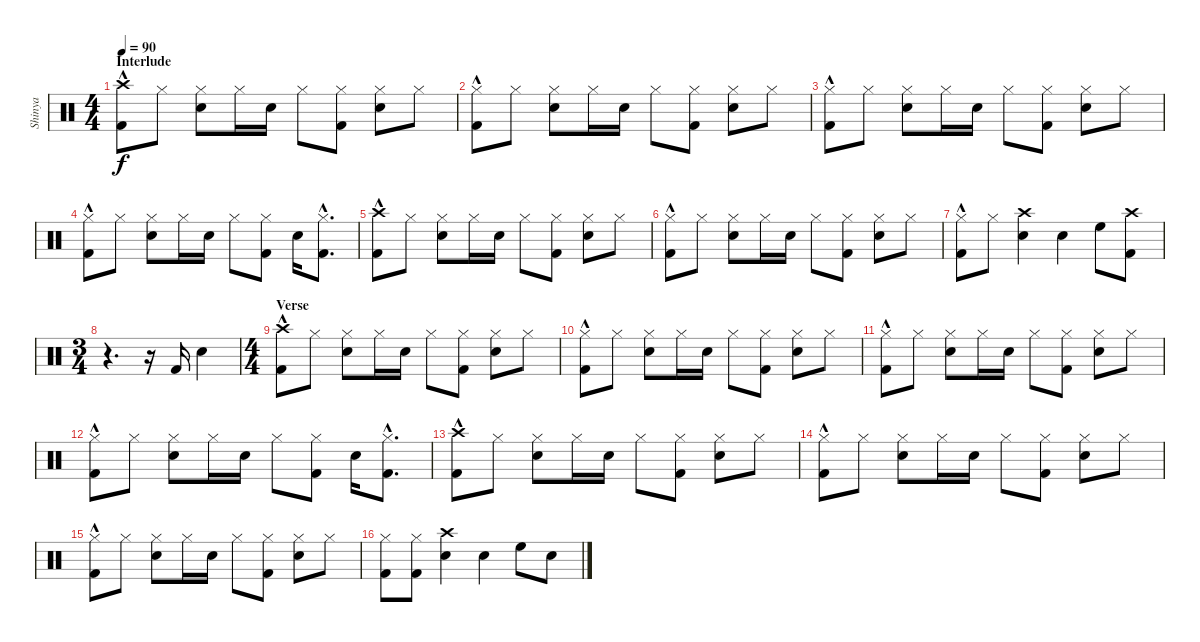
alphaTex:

\track ("Shinya" "Shinya") {instrument percussion}
\staff {score}
\articulation defaults
\ts (4 4)
\section ("" "Interlude")
\tempo 90
\clef neutral
\ks c
("Kick (hit) 2"{hac} "Crash high (hit)").8{dy f} "Hi-Hat (closed)".8 ("Snare (hit) 2" "Hi-Hat (closed)").8 "Hi-Hat (closed)".16 "Snare (hit) 2".16 "Hi-Hat (closed)".8 ("Kick (hit) 2" "Hi-Hat (closed)").8 ("Snare (hit) 2" "Hi-Hat (closed)").8 "Hi-Hat (closed)".8 |
("Kick (hit) 2"{hac} "Hi-Hat (closed)").8 "Hi-Hat (closed)".8 ("Snare (hit) 2" "Hi-Hat (closed)").8 "Hi-Hat (closed)".16 "Snare (hit) 2".16 "Hi-Hat (closed)".8 ("Kick (hit) 2" "Hi-Hat (closed)").8 ("Snare (hit) 2" "Hi-Hat (closed)").8 "Hi-Hat (closed)".8 |
("Kick (hit) 2"{hac} "Hi-Hat (closed)").8 "Hi-Hat (closed)".8 ("Snare (hit) 2" "Hi-Hat (closed)").8 "Hi-Hat (closed)".16 "Snare (hit) 2".16 "Hi-Hat (closed)".8 ("Kick (hit) 2" "Hi-Hat (closed)").8 ("Snare (hit) 2" "Hi-Hat (closed)").8 "Hi-Hat (closed)".8 |
("Kick (hit) 2"{hac} "Hi-Hat (closed)").8 "Hi-Hat (closed)".8 ("Snare (hit) 2" "Hi-Hat (closed)").8 "Hi-Hat (closed)".16 "Snare (hit) 2".16 "Hi-Hat (closed)".8 ("Kick (hit) 2" "Hi-Hat (closed)").8 "Snare (hit) 2".16 ("Kick (hit) 2"{hac} "Hi-Hat (closed)"{hac}).8{d} |
("Kick (hit) 2"{hac} "Crash high (hit)").8 "Hi-Hat (closed)".8 ("Snare (hit) 2" "Hi-Hat (closed)").8 "Hi-Hat (closed)".16 "Snare (hit) 2".16 "Hi-Hat (closed)".8 ("Kick (hit) 2" "Hi-Hat (closed)").8 ("Snare (hit) 2" "Hi-Hat (closed)").8 "Hi-Hat (closed)".8 |
("Kick (hit) 2"{hac} "Hi-Hat (closed)").8 "Hi-Hat (closed)".8 ("Snare (hit) 2" "Hi-Hat (closed)").8 "Hi-Hat (closed)".16 "Snare (hit) 2".16 "Hi-Hat (closed)".8 ("Kick (hit) 2" "Hi-Hat (closed)").8 ("Snare (hit) 2" "Hi-Hat (closed)").8 "Hi-Hat (closed)".8 |
("Kick (hit) 2"{hac} "Hi-Hat (closed)").8 "Hi-Hat (closed)".8 ("Snare (hit) 2" "Crash high (hit)").4 "Snare (hit) 2".4 "High Floor Tom (hit)".8 ("Kick (hit) 2" "Crash high (hit)").8 |
\ts (3 4)
r.4{d} r.16 "Kick (hit) 2".16 "Snare (hit) 2".4 |
\ts (4 4)
\section ("" "Verse")
("Kick (hit) 2"{hac} "Crash high (hit)").8 "Hi-Hat (closed)".8 ("Snare (hit) 2" "Hi-Hat (closed)").8 "Hi-Hat (closed)".16 "Snare (hit) 2".16 "Hi-Hat (closed)".8 ("Kick (hit) 2" "Hi-Hat (closed)").8 ("Snare (hit) 2" "Hi-Hat (closed)").8 "Hi-Hat (closed)".8 |
("Kick (hit) 2"{hac} "Hi-Hat (closed)").8 "Hi-Hat (closed)".8 ("Snare (hit) 2" "Hi-Hat (closed)").8 "Hi-Hat (closed)".16 "Snare (hit) 2".16 "Hi-Hat (closed)".8 ("Kick (hit) 2" "Hi-Hat (closed)").8 ("Snare (hit) 2" "Hi-Hat (closed)").8 "Hi-Hat (closed)".8 |
("Kick (hit) 2"{hac} "Hi-Hat (closed)").8 "Hi-Hat (closed)".8 ("Snare (hit) 2" "Hi-Hat (closed)").8 "Hi-Hat (closed)".16 "Snare (hit) 2".16 "Hi-Hat (closed)".8 ("Kick (hit) 2" "Hi-Hat (closed)").8 ("Snare (hit) 2" "Hi-Hat (closed)").8 "Hi-Hat (closed)".8 |
("Kick (hit) 2"{hac} "Hi-Hat (closed)").8 "Hi-Hat (closed)".8 ("Snare (hit) 2" "Hi-Hat (closed)").8 "Hi-Hat (closed)".16 "Snare (hit) 2".16 "Hi-Hat (closed)".8 ("Kick (hit) 2" "Hi-Hat (closed)").8 "Snare (hit) 2".16 ("Kick (hit) 2"{hac} "Hi-Hat (closed)"{hac}).8{d} |
("Kick (hit) 2"{hac} "Crash high (hit)").8 "Hi-Hat (closed)".8 ("Snare (hit) 2" "Hi-Hat (closed)").8 "Hi-Hat (closed)".16 "Snare (hit) 2".16 "Hi-Hat (closed)".8 ("Kick (hit) 2" "Hi-Hat (closed)").8 ("Snare (hit) 2" "Hi-Hat (closed)").8 "Hi-Hat (closed)".8 |
("Kick (hit) 2"{hac} "Hi-Hat (closed)").8 "Hi-Hat (closed)".8 ("Snare (hit) 2" "Hi-Hat (closed)").8 "Hi-Hat (closed)".16 "Snare (hit) 2".16 "Hi-Hat (closed)".8 ("Kick (hit) 2" "Hi-Hat (closed)").8 ("Snare (hit) 2" "Hi-Hat (closed)").8 "Hi-Hat (closed)".8 |
("Kick (hit) 2"{hac} "Hi-Hat (closed)").8 "Hi-Hat (closed)".8 ("Snare (hit) 2" "Hi-Hat (closed)").8 "Hi-Hat (closed)".16 "Snare (hit) 2".16 "Hi-Hat (closed)".8 ("Kick (hit) 2" "Hi-Hat (closed)").8 ("Snare (hit) 2" "Hi-Hat (closed)").8 "Hi-Hat (closed)".8 |
("Hi-Hat (closed)" "Kick (hit) 2").8 ("Hi-Hat (closed)" "Kick (hit) 2").8 ("Snare (hit) 2" "Crash high (hit)").4 "Snare (hit) 2".4 "High Floor Tom (hit)".8 "Snare (hit) 2".8
